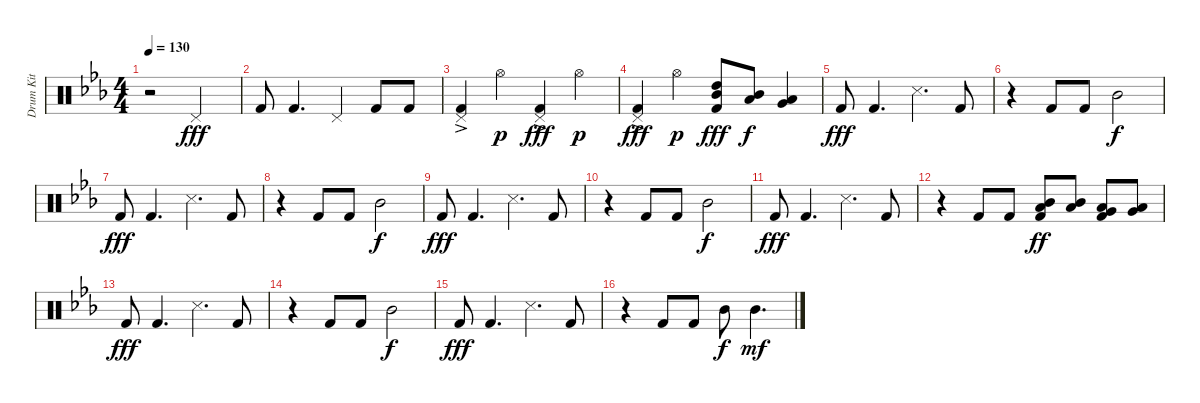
\track ("Drum Kit" "Drum Kit") {instrument percussion}
\staff {score}
\articulation defaults
\ts (4 4)
\tempo 130
\clef neutral
\ks cminor
r.2{dy fff} "Pedal Hi-Hat (hit)".2 |
"Kick (hit) 2".8 "Kick (hit) 2".4{d} "Pedal Hi-Hat (hit)".4 "Kick (hit) 2".8 "Kick (hit) 2".8 |
("Pedal Hi-Hat (hit)"{ac} "Kick (hit) 2").4 "Hi-Hat (open)".4{dy p} ("Pedal Hi-Hat (hit)"{ac} "Kick (hit) 2").4{dy fff} "Hi-Hat (open)".4{dy p} |
("Pedal Hi-Hat (hit)"{ac} "Kick (hit) 2").4{dy fff} "Hi-Hat (open)".4{dy p} ("High Tom (hit)" "Mid Tom (hit)" "Kick (hit) 2").8{dy fff} ("Mid Tom (hit)" "Low Tom (hit)").8{dy f} ("Low Tom (hit)" "Very Low Tom (hit)").4 |
"Kick (hit) 2".8{dy fff} "Kick (hit) 2".4{d} "Snare (side stick) 3".4{d} "Kick (hit) 2".8 |
r.4 "Kick (hit) 2".8 "Kick (hit) 2".8 "Mid Tom (hit)".2{dy f} |
"Kick (hit) 2".8{dy fff} "Kick (hit) 2".4{d} "Snare (side stick) 3".4{d} "Kick (hit) 2".8 |
r.4 "Kick (hit) 2".8 "Kick (hit) 2".8 "Mid Tom (hit)".2{dy f} |
"Kick (hit) 2".8{dy fff} "Kick (hit) 2".4{d} "Snare (side stick) 3".4{d} "Kick (hit) 2".8 |
r.4 "Kick (hit) 2".8 "Kick (hit) 2".8 "Mid Tom (hit)".2{dy f} |
"Kick (hit) 2".8{dy fff} "Kick (hit) 2".4{d} "Snare (side stick) 3".4{d} "Kick (hit) 2".8 |
r.4 "Kick (hit) 2".8 "Kick (hit) 2".8 ("Kick (hit) 2" "Mid Tom (hit)" "Low Tom (hit)").8{dy ff} ("Mid Tom (hit)" "Low Tom (hit)").8 ("Kick (hit) 2" "Low Tom (hit)" "Very Low Tom (hit)").8 ("Low Tom (hit)" "Very Low Tom (hit)").8 |
"Kick (hit) 2".8{dy fff} "Kick (hit) 2".4{d} "Snare (side stick) 3".4{d} "Kick (hit) 2".8 |
r.4 "Kick (hit) 2".8 "Kick (hit) 2".8 "Mid Tom (hit)".2{dy f} |
"Kick (hit) 2".8{dy fff} "Kick (hit) 2".4{d} "Snare (side stick) 3".4{d} "Kick (hit) 2".8 |
r.4 "Kick (hit) 2".8 "Kick (hit) 2".8 "Mid Tom (hit)".8{dy f} "Mid Tom (hit)".4{d dy mf}
